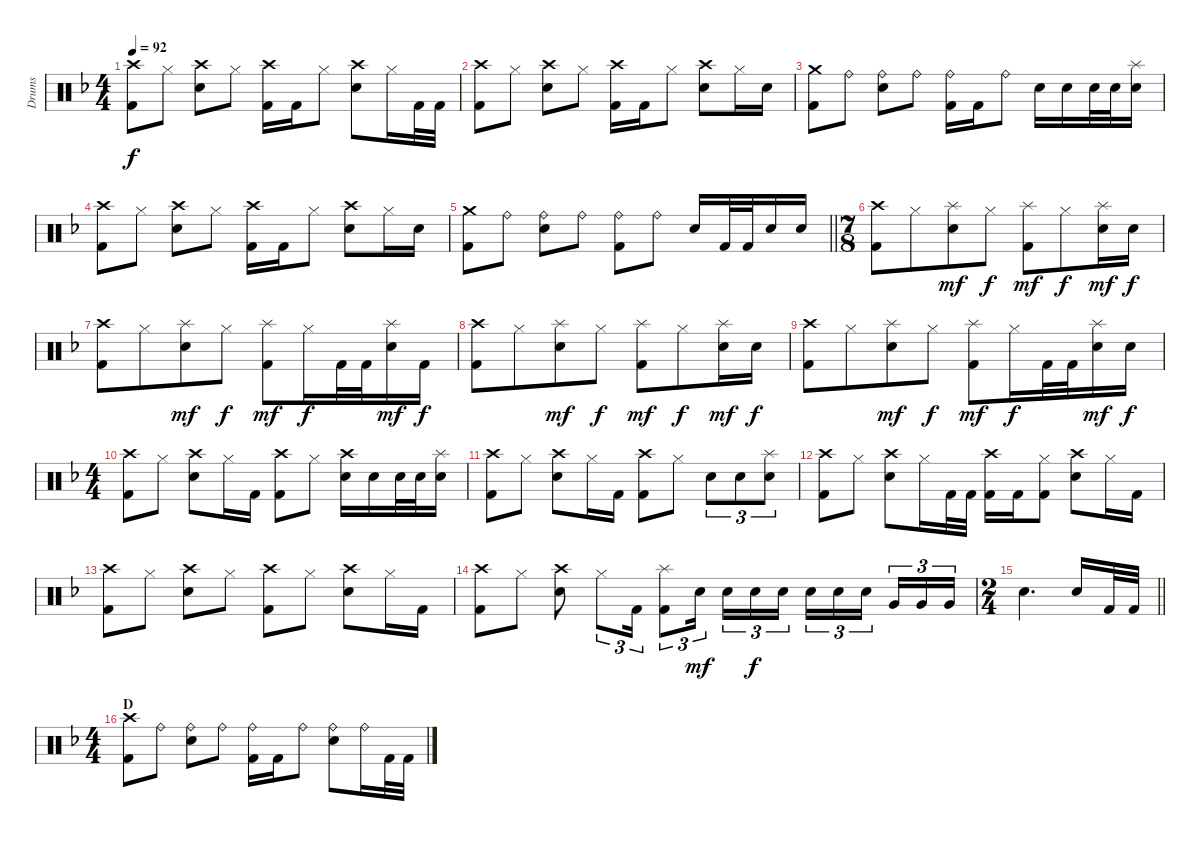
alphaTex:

\track ("Drums" "Drums") {instrument percussion}
\staff {score}
\articulation defaults
\ts (4 4)
\section ("" "")
\tempo 92
\clef neutral
\ks f
("Crash high (hit)" "Kick (hit) 2").8{dy f} "Hi-Hat (closed)".8 ("Crash high (hit)" "Snare (hit) 2").8 "Hi-Hat (closed)".8 ("Crash high (hit)" "Kick (hit) 2").16 "Kick (hit) 2".16 "Hi-Hat (closed)".8 ("Crash high (hit)" "Snare (hit) 2").8 "Hi-Hat (closed)".16 "Kick (hit) 2".32 "Kick (hit) 2".32 |
("Crash high (hit)" "Kick (hit) 2").8 "Hi-Hat (closed)".8 ("Crash high (hit)" "Snare (hit) 2").8 "Hi-Hat (closed)".8 ("Crash high (hit)" "Kick (hit) 2").16 "Kick (hit) 2".16 "Hi-Hat (closed)".8 ("Crash high (hit)" "Snare (hit) 2").8 "Hi-Hat (closed)".16 "Snare (hit) 2".16 |
("Crash medium (hit)" "Kick (hit) 2").8 "Ride (bell)".8 ("Ride (bell)" "Snare (hit) 2").8 "Ride (bell)".8 ("Ride (bell)" "Kick (hit) 2").16 "Kick (hit) 2".16 "Ride (bell)".8 "Snare (hit) 2".16 "Snare (hit) 2".16 "Snare (hit) 2".32 "Snare (hit) 2".32 ("Snare (hit) 2" "Splash (hit)").16 |
("Crash high (hit)" "Kick (hit) 2").8 "Hi-Hat (closed)".8 ("Crash high (hit)" "Snare (hit) 2").8 "Hi-Hat (closed)".8 ("Crash high (hit)" "Kick (hit) 2").16 "Kick (hit) 2".16 "Hi-Hat (closed)".8 ("Crash high (hit)" "Snare (hit) 2").8 "Hi-Hat (closed)".16 "Snare (hit) 2".16 |
\barLineRight lightlight
("Crash medium (hit)" "Kick (hit) 2").8 "Ride (bell)".8 ("Ride (bell)" "Snare (hit) 2").8 "Ride (bell)".8 ("Ride (bell)" "Kick (hit) 2").8 "Ride (bell)".8 "Snare (hit) 2".16 "Kick (hit) 2".32 "Kick (hit) 2".32 "Snare (hit) 2".16 "Snare (hit) 2".16 |
\ts (7 8)
\section ("" "")
("Crash high (hit)" "Kick (hit) 2").8 "Hi-Hat (closed)".8 ("Snare (hit) 2" "Splash (hit)").8{dy mf} "Hi-Hat (closed)".8{dy f} ("Kick (hit) 2" "Splash (hit)").8{dy mf} "Hi-Hat (closed)".8{dy f} ("Splash (hit)" "Snare (hit) 2").16{dy mf} "Snare (hit) 2".16{dy f} |
("Crash high (hit)" "Kick (hit) 2").8 "Hi-Hat (closed)".8 ("Snare (hit) 2" "Splash (hit)").8{dy mf} "Hi-Hat (closed)".8{dy f} ("Kick (hit) 2" "Splash (hit)").8{dy mf} "Hi-Hat (closed)".16{dy f} "Kick (hit) 2".32 "Kick (hit) 2".32 ("Splash (hit)" "Snare (hit) 2").16{dy mf} "Kick (hit) 2".16{dy f} |
("Crash high (hit)" "Kick (hit) 2").8 "Hi-Hat (closed)".8 ("Snare (hit) 2" "Splash (hit)").8{dy mf} "Hi-Hat (closed)".8{dy f} ("Kick (hit) 2" "Splash (hit)").8{dy mf} "Hi-Hat (closed)".8{dy f} ("Splash (hit)" "Snare (hit) 2").16{dy mf} "Snare (hit) 2".16{dy f} |
("Crash high (hit)" "Kick (hit) 2").8 "Hi-Hat (closed)".8 ("Snare (hit) 2" "Splash (hit)").8{dy mf} "Hi-Hat (closed)".8{dy f} ("Kick (hit) 2" "Splash (hit)").8{dy mf} "Hi-Hat (closed)".16{dy f} "Kick (hit) 2".32 "Kick (hit) 2".32 ("Splash (hit)" "Snare (hit) 2").16{dy mf} "Snare (hit) 2".16{dy f} |
\ts (4 4)
("Crash high (hit)" "Kick (hit) 2").8 "Hi-Hat (closed)".8 ("Crash high (hit)" "Snare (hit) 2").8 "Hi-Hat (closed)".16 "Kick (hit) 2".16 ("Crash high (hit)" "Kick (hit) 2").8 "Hi-Hat (closed)".8 ("Crash high (hit)" "Snare (hit) 2").16 "Snare (hit) 2".16 "Snare (hit) 2".32 "Snare (hit) 2".32 ("Snare (hit) 2" "Splash (hit)").16 |
("Crash high (hit)" "Kick (hit) 2").8 "Hi-Hat (closed)".8 ("Crash high (hit)" "Snare (hit) 2").8 "Hi-Hat (closed)".16 "Kick (hit) 2".16 ("Crash high (hit)" "Kick (hit) 2").8 "Hi-Hat (closed)".8 "Snare (hit) 2".8{tu (3 2)} "Snare (hit) 2".8{tu (3 2)} ("Snare (hit) 2" "Splash (hit)").8{tu (3 2)} |
("Crash high (hit)" "Kick (hit) 2").8 "Hi-Hat (closed)".8 ("Crash high (hit)" "Snare (hit) 2").8 "Hi-Hat (closed)".16 "Kick (hit) 2".32 "Kick (hit) 2".32 ("Crash high (hit)" "Kick (hit) 2").16 "Kick (hit) 2".16 ("Hi-Hat (closed)" "Kick (hit) 2").8 ("Crash high (hit)" "Snare (hit) 2").8 "Hi-Hat (closed)".16 "Kick (hit) 2".16 |
("Crash high (hit)" "Kick (hit) 2").8 "Hi-Hat (closed)".8 ("Crash high (hit)" "Snare (hit) 2").8 "Hi-Hat (closed)".8 ("Crash high (hit)" "Kick (hit) 2").8 "Hi-Hat (closed)".8 ("Crash high (hit)" "Snare (hit) 2").8 "Hi-Hat (closed)".16 "Kick (hit) 2".16 |
("Crash high (hit)" "Kick (hit) 2").8 "Hi-Hat (closed)".8 ("Crash high (hit)" "Snare (hit) 2").8 "Hi-Hat (closed)".8{tu (3 2)} "Kick (hit) 2".16{tu (3 2)} ("Kick (hit) 2" "Splash (hit)").8{tu (3 2)} "Snare (hit) 2".16{tu (3 2) dy mf beam splitsecondary} "Snare (hit) 2".16{tu (3 2)} "Snare (hit) 2".16{tu (3 2) dy f} "Snare (hit) 2".16{tu (3 2)} "Snare (hit) 2".16{tu (3 2)} "Snare (hit) 2".16{tu (3 2)} "Snare (hit) 2".16{tu (3 2) beam splitsecondary} "Very Low Tom (hit)".16{tu (3 2)} "Very Low Tom (hit)".16{tu (3 2)} "Very Low Tom (hit)".16{tu (3 2)} |
\ts (2 4)
\barLineRight lightlight "Snare (hit) 2".4{d} "Snare (hit) 2".16 "Kick (hit) 2".32 "Kick (hit) 2".32
|
\ts (4 4)
\section ("" "D")
("Crash high (hit)" "Kick (hit) 2").8 "Ride (bell)".8 ("Ride (bell)" "Snare (hit) 2").8 "Ride (bell)".8 ("Ride (bell)" "Kick (hit) 2").16 "Kick (hit) 2".16 "Ride (bell)".8 ("Ride (bell)" "Snare (hit) 2").8 "Ride (bell)".16 "Kick (hit) 2".32 "Kick (hit) 2".32
